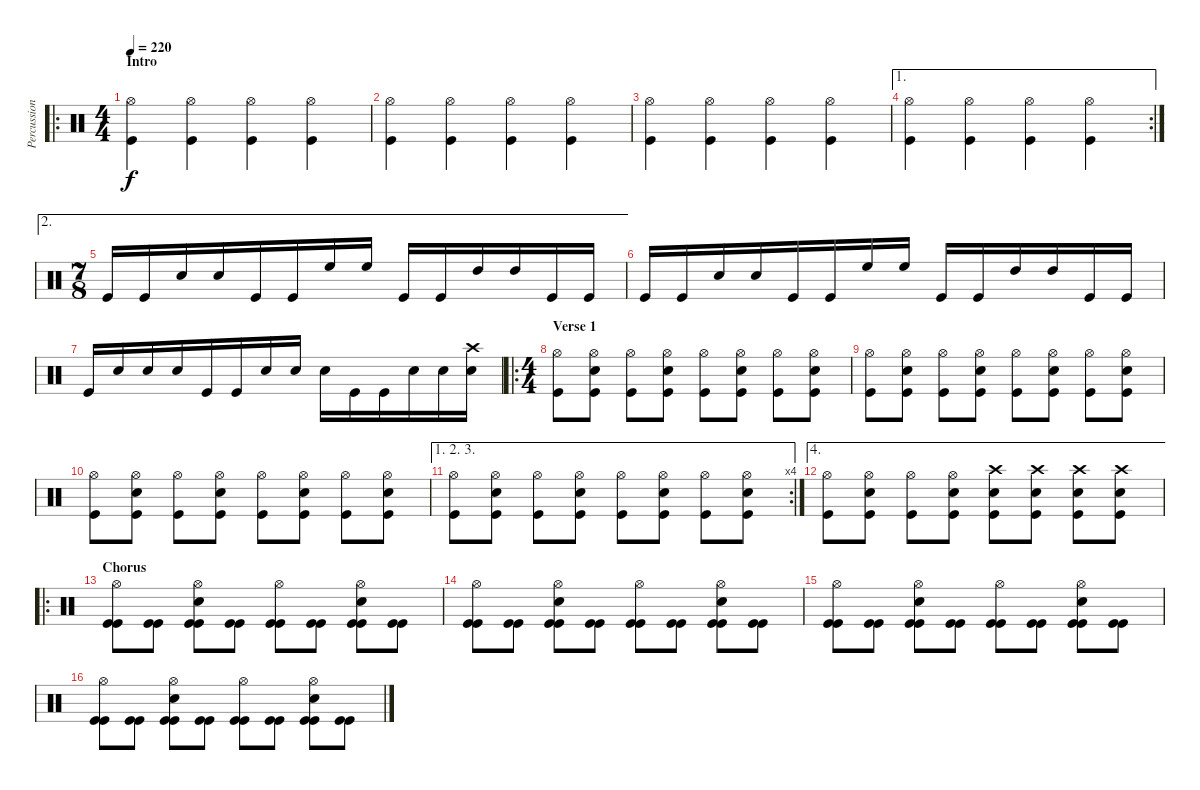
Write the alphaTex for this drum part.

\track ("Percussion" "Percussion") {instrument percussion}
\staff {score}
\articulation defaults
\ro
\ts (4 4)
\section ("" "Intro")
\tempo 220
\clef neutral
\ks c
("Hi-Hat (open)" "Kick (hit)").4{dy f} ("Hi-Hat (open)" "Kick (hit)").4 ("Hi-Hat (open)" "Kick (hit)").4 ("Hi-Hat (open)" "Kick (hit)").4 |
("Hi-Hat (open)" "Kick (hit)").4 ("Hi-Hat (open)" "Kick (hit)").4 ("Hi-Hat (open)" "Kick (hit)").4 ("Hi-Hat (open)" "Kick (hit)").4 |
("Hi-Hat (open)" "Kick (hit)").4 ("Hi-Hat (open)" "Kick (hit)").4 ("Hi-Hat (open)" "Kick (hit)").4 ("Hi-Hat (open)" "Kick (hit)").4 |
\ae 1
\rc 2
("Hi-Hat (open)" "Kick (hit)").4 ("Hi-Hat (open)" "Kick (hit)").4 ("Hi-Hat (open)" "Kick (hit)").4 ("Hi-Hat (open)" "Kick (hit)").4 |
\ae 2
\ts (7 8)
"Kick (hit)".16 "Kick (hit)".16 "Snare (hit) 2".16 "Snare (hit) 2".16 "Kick (hit)".16 "Kick (hit)".16 "High Floor Tom (hit)".16 "High Floor Tom (hit)".16 "Kick (hit)".16 "Kick (hit)".16 "High Tom (hit)".16 "High Tom (hit)".16 "Kick (hit)".16 "Kick (hit)".16 |
"Kick (hit)".16 "Kick (hit)".16 "Snare (hit) 2".16 "Snare (hit) 2".16 "Kick (hit)".16 "Kick (hit)".16 "High Floor Tom (hit)".16 "High Floor Tom (hit)".16 "Kick (hit)".16 "Kick (hit)".16 "High Tom (hit)".16 "High Tom (hit)".16 "Kick (hit)".16 "Kick (hit)".16 |
"Kick (hit)".16 "Snare (hit) 2".16 "Snare (hit) 2".16 "Snare (hit) 2".16 "Kick (hit)".16 "Kick (hit)".16 "Snare (hit) 2".16 "Snare (hit) 2".16 "Snare (hit) 2".16 "Kick (hit)".16 "Kick (hit)".16 "Snare (hit) 2".16 "Snare (hit) 2".16 ("Crash high (hit)" "Snare (hit) 2").16 |
\ro
\ts (4 4)
\section ("" "Verse 1")
("Hi-Hat (open)" "Kick (hit)").8 ("Hi-Hat (open)" "Snare (hit) 2" "Kick (hit)").8 ("Hi-Hat (open)" "Kick (hit)").8 ("Hi-Hat (open)" "Snare (hit) 2" "Kick (hit)").8 ("Hi-Hat (open)" "Kick (hit)").8 ("Hi-Hat (open)" "Snare (hit) 2" "Kick (hit)").8 ("Hi-Hat (open)" "Kick (hit)").8 ("Hi-Hat (open)" "Snare (hit) 2" "Kick (hit)").8 |
("Hi-Hat (open)" "Kick (hit)").8 ("Hi-Hat (open)" "Snare (hit) 2" "Kick (hit)").8 ("Hi-Hat (open)" "Kick (hit)").8 ("Hi-Hat (open)" "Snare (hit) 2" "Kick (hit)").8 ("Hi-Hat (open)" "Kick (hit)").8 ("Hi-Hat (open)" "Snare (hit) 2" "Kick (hit)").8 ("Hi-Hat (open)" "Kick (hit)").8 ("Hi-Hat (open)" "Snare (hit) 2" "Kick (hit)").8 |
("Hi-Hat (open)" "Kick (hit)").8 ("Hi-Hat (open)" "Snare (hit) 2" "Kick (hit)").8 ("Hi-Hat (open)" "Kick (hit)").8 ("Hi-Hat (open)" "Snare (hit) 2" "Kick (hit)").8 ("Hi-Hat (open)" "Kick (hit)").8 ("Hi-Hat (open)" "Snare (hit) 2" "Kick (hit)").8 ("Hi-Hat (open)" "Kick (hit)").8 ("Hi-Hat (open)" "Snare (hit) 2" "Kick (hit)").8 |
\ae (1 2 3)
\rc 4
("Hi-Hat (open)" "Kick (hit)").8 ("Hi-Hat (open)" "Snare (hit) 2" "Kick (hit)").8 ("Hi-Hat (open)" "Kick (hit)").8 ("Hi-Hat (open)" "Snare (hit) 2" "Kick (hit)").8 ("Hi-Hat (open)" "Kick (hit)").8 ("Hi-Hat (open)" "Snare (hit) 2" "Kick (hit)").8 ("Hi-Hat (open)" "Kick (hit)").8 ("Hi-Hat (open)" "Snare (hit) 2" "Kick (hit)").8 |
\ae 4
("Hi-Hat (open)" "Kick (hit)").8 ("Hi-Hat (open)" "Snare (hit) 2" "Kick (hit)").8 ("Hi-Hat (open)" "Kick (hit)").8 ("Hi-Hat (open)" "Snare (hit) 2" "Kick (hit)").8 ("Crash high (hit)" "Snare (hit) 2" "Kick (hit)").8 ("Crash high (hit)" "Snare (hit) 2" "Kick (hit)").8 ("Crash high (hit)" "Snare (hit) 2" "Kick (hit)").8 ("Crash high (hit)" "Snare (hit) 2" "Kick (hit)").8 |
\ro
\section ("" "Chorus")
("Hi-Hat (open)" "Kick (hit)" "Kick (hit)").8 ("Kick (hit)" "Kick (hit)").8 ("Hi-Hat (open)" "Snare (hit) 2" "Kick (hit)" "Kick (hit)").8 ("Kick (hit)" "Kick (hit)").8 ("Hi-Hat (open)" "Kick (hit)" "Kick (hit)").8 ("Kick (hit)" "Kick (hit)").8 ("Hi-Hat (open)" "Snare (hit) 2" "Kick (hit)" "Kick (hit)").8 ("Kick (hit)" "Kick (hit)").8 |
("Hi-Hat (open)" "Kick (hit)" "Kick (hit)").8 ("Kick (hit)" "Kick (hit)").8 ("Hi-Hat (open)" "Snare (hit) 2" "Kick (hit)" "Kick (hit)").8 ("Kick (hit)" "Kick (hit)").8 ("Hi-Hat (open)" "Kick (hit)" "Kick (hit)").8 ("Kick (hit)" "Kick (hit)").8 ("Hi-Hat (open)" "Snare (hit) 2" "Kick (hit)" "Kick (hit)").8 ("Kick (hit)" "Kick (hit)").8 |
("Hi-Hat (open)" "Kick (hit)" "Kick (hit)").8 ("Kick (hit)" "Kick (hit)").8 ("Hi-Hat (open)" "Snare (hit) 2" "Kick (hit)" "Kick (hit)").8 ("Kick (hit)" "Kick (hit)").8 ("Hi-Hat (open)" "Kick (hit)" "Kick (hit)").8 ("Kick (hit)" "Kick (hit)").8 ("Hi-Hat (open)" "Snare (hit) 2" "Kick (hit)" "Kick (hit)").8 ("Kick (hit)" "Kick (hit)").8 |
("Hi-Hat (open)" "Kick (hit)" "Kick (hit)").8 ("Kick (hit)" "Kick (hit)").8 ("Hi-Hat (open)" "Snare (hit) 2" "Kick (hit)" "Kick (hit)").8 ("Kick (hit)" "Kick (hit)").8 ("Hi-Hat (open)" "Kick (hit)" "Kick (hit)").8 ("Kick (hit)" "Kick (hit)").8 ("Hi-Hat (open)" "Snare (hit) 2" "Kick (hit)" "Kick (hit)").8 ("Kick (hit)" "Kick (hit)").8
